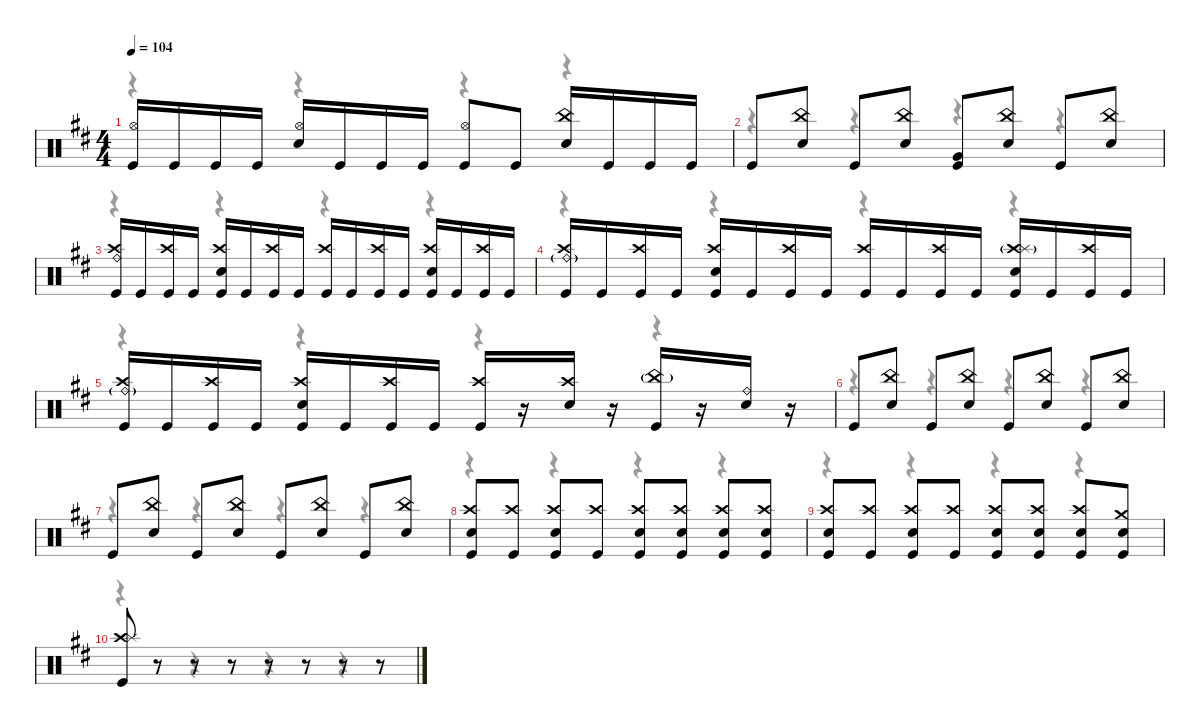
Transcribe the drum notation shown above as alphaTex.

\defaultSystemsLayout 4
\hideDynamics
\bracketExtendMode nobrackets
\singleTrackTrackNamePolicy hidden
\multiTrackTrackNamePolicy hidden
\firstSystemTrackNameMode fullname
\otherSystemsTrackNameOrientation horizontal
\track ("Drums" "drm.") {instrument percussion}
\staff {score}
\articulation defaults
\voice
\ts (4 4)
\tempo 104
\clef neutral
\ks bminor
("Hi-Hat (open)"{acc forcenatural} "Kick (hit)"{acc forcenatural}).16{dy mp beam Up} "Kick (hit)"{acc forcenatural}.16{dy f beam Up} "Kick (hit)"{acc forcenatural}.16{beam Up} "Kick (hit)"{acc forcenatural}.16{beam Up} ("Hi-Hat (open)"{acc forcenatural} "Snare (hit) 2"{acc forcenatural}).16{dy mp beam Up} "Kick (hit)"{acc forcenatural}.16{dy f beam Up} "Kick (hit)"{acc forcenatural}.16{beam Up} "Kick (hit)"{acc forcenatural}.16{beam Up} ("Hi-Hat (open)"{acc forcenatural} "Kick (hit)"{acc forcenatural}).8{dy mp beam Up} "Kick (hit)"{acc forcenatural}.8{dy f beam Up} ("China (hit)"{acc forcenatural} "Snare (hit) 2"{acc forcenatural}).16{dy mf beam Up} "Kick (hit)"{acc forcenatural}.16{dy f beam Up} "Kick (hit)"{acc forcenatural}.16{beam Up} "Kick (hit)"{acc forcenatural}.16{beam Up} |
"Kick (hit)"{acc forcenatural}.8{beam Up} ("China (hit)"{acc forcenatural} "Snare (hit) 2"{acc forcenatural}).8{beam Up} "Kick (hit)"{acc forcenatural}.8{beam Up} ("China (hit)"{acc forcenatural} "Snare (hit) 2"{acc forcenatural}).8{beam Up} ("Very Low Tom (hit)"{acc forcenatural} "Kick (hit)"{acc forcenatural}).8{beam Up} ("China (hit)"{acc forcenatural} "Snare (hit) 2"{acc forcenatural}).8{beam Up} "Kick (hit)"{acc forcenatural}.8{beam Up} ("China (hit)"{acc forcenatural} "Snare (hit) 2"{acc forcenatural}).8{beam Up} |
("Ride (bell)"{acc forcenatural} "Crash high (hit)"{acc forcenatural} "Kick (hit)"{acc forcenatural}).16{dy mp beam Up} "Kick (hit)"{acc forcenatural}.16{dy f beam Up} ("Crash high (hit)"{acc forcenatural} "Kick (hit)"{acc forcenatural}).16{dy pp beam Up} "Kick (hit)"{acc forcenatural}.16{dy f beam Up} ("Crash high (hit)"{acc forcenatural} "Snare (hit) 2"{acc forcenatural} "Kick (hit)"{acc forcenatural}).16{dy mp beam Up} "Kick (hit)"{acc forcenatural}.16{dy f beam Up} ("Crash high (hit)"{acc forcenatural} "Kick (hit)"{acc forcenatural}).16{dy pp beam Up} "Kick (hit)"{acc forcenatural}.16{dy f beam Up} ("Crash high (hit)"{acc forcenatural} "Kick (hit)"{acc forcenatural}).16{dy mp beam Up} "Kick (hit)"{acc forcenatural}.16{dy f beam Up} ("Crash high (hit)"{acc forcenatural} "Kick (hit)"{acc forcenatural}).16{dy pp beam Up} "Kick (hit)"{acc forcenatural}.16{dy f beam Up} ("Crash high (hit)"{acc forcenatural} "Snare (hit) 2"{acc forcenatural} "Kick (hit)"{acc forcenatural}).16{dy mp beam Up} "Kick (hit)"{acc forcenatural}.16{dy f beam Up} ("Crash high (hit)"{acc forcenatural} "Kick (hit)"{acc forcenatural}).16{dy pp beam Up} "Kick (hit)"{acc forcenatural}.16{dy f beam Up} |
("Ride (bell)"{g acc forcenatural} "Crash high (hit)"{acc forcenatural} "Kick (hit)"{acc forcenatural}).16{dy mp beam Up} "Kick (hit)"{acc forcenatural}.16{dy f beam Up} ("Crash high (hit)"{acc forcenatural} "Kick (hit)"{acc forcenatural}).16{dy pp beam Up} "Kick (hit)"{acc forcenatural}.16{dy f beam Up} ("Crash high (hit)"{acc forcenatural} "Snare (hit) 2"{acc forcenatural} "Kick (hit)"{acc forcenatural}).16{dy mp beam Up} "Kick (hit)"{acc forcenatural}.16{dy f beam Up} ("Crash high (hit)"{acc forcenatural} "Kick (hit)"{acc forcenatural}).16{dy pp beam Up} "Kick (hit)"{acc forcenatural}.16{dy f beam Up} ("Crash high (hit)"{acc forcenatural} "Kick (hit)"{acc forcenatural}).16{dy mp beam Up} "Kick (hit)"{acc forcenatural}.16{dy f beam Up} ("Crash high (hit)"{acc forcenatural} "Kick (hit)"{acc forcenatural}).16{dy pp beam Up} "Kick (hit)"{acc forcenatural}.16{dy f beam Up} ("Crash high (hit)"{acc forcenatural} "Splash (hit)"{g acc forcenatural} "Snare (hit) 2"{acc forcenatural} "Kick (hit)"{acc forcenatural}).16{dy mp beam Up} "Kick (hit)"{acc forcenatural}.16{dy f beam Up} ("Crash high (hit)"{acc forcenatural} "Kick (hit)"{acc forcenatural}).16{dy pp beam Up} "Kick (hit)"{acc forcenatural}.16{dy f beam Up} |
("Ride (bell)"{g acc forcenatural} "Crash high (hit)"{acc forcenatural} "Kick (hit)"{acc forcenatural}).16{dy mp beam Up} "Kick (hit)"{acc forcenatural}.16{dy f beam Up} ("Crash high (hit)"{acc forcenatural} "Kick (hit)"{acc forcenatural}).16{dy pp beam Up} "Kick (hit)"{acc forcenatural}.16{dy f beam Up} ("Crash high (hit)"{acc forcenatural} "Snare (hit) 2"{acc forcenatural} "Kick (hit)"{acc forcenatural}).16{dy mp beam Up} "Kick (hit)"{acc forcenatural}.16{dy f beam Up} ("Crash high (hit)"{acc forcenatural} "Kick (hit)"{acc forcenatural}).16{dy pp beam Up} "Kick (hit)"{acc forcenatural}.16{dy f beam Up} ("Crash high (hit)"{acc forcenatural} "Kick (hit)"{acc forcenatural}).16{dy mp beam Up} r.16{beam Up} ("Crash high (hit)"{acc forcenatural} "Snare (hit) 2"{acc forcenatural}).16{dy pp beam Up} r.16{beam Up} ("China (hit)"{g acc forcenatural} "Kick (hit)"{acc forcenatural}).16{dy f beam Up} r.16{beam Up} ("Ride (bell)"{acc forcenatural} "Snare (hit) 2"{acc forcenatural}).16{dy p beam Up} r.16{beam Up} |
"Kick (hit)"{acc forcenatural}.8{dy f beam Up} ("China (hit)"{acc forcenatural} "Snare (hit) 2"{acc forcenatural}).8{dy mf beam Up} "Kick (hit)"{acc forcenatural}.8{dy f beam Up} ("China (hit)"{acc forcenatural} "Snare (hit) 2"{acc forcenatural}).8{dy mf beam Up} "Kick (hit)"{acc forcenatural}.8{dy f beam Up} ("China (hit)"{acc forcenatural} "Snare (hit) 2"{acc forcenatural}).8{dy mf beam Up} "Kick (hit)"{acc forcenatural}.8{dy f beam Up} ("China (hit)"{acc forcenatural} "Snare (hit) 2"{acc forcenatural}).8{dy mf beam Up} |
"Kick (hit)"{acc forcenatural}.8{dy f beam Up} ("China (hit)"{acc forcenatural} "Snare (hit) 2"{acc forcenatural}).8{dy mf beam Up} "Kick (hit)"{acc forcenatural}.8{dy f beam Up} ("China (hit)"{acc forcenatural} "Snare (hit) 2"{acc forcenatural}).8{dy mf beam Up} "Kick (hit)"{acc forcenatural}.8{dy f beam Up} ("China (hit)"{acc forcenatural} "Snare (hit) 2"{acc forcenatural}).8{dy mf beam Up} "Kick (hit)"{acc forcenatural}.8{dy f beam Up} ("China (hit)"{acc forcenatural} "Snare (hit) 2"{acc forcenatural}).8{dy mf beam Up} |
("Crash high (hit)"{acc forcenatural} "Snare (hit) 2"{acc forcenatural} "Kick (hit)"{acc forcenatural}).8{beam Up} ("Crash high (hit)"{acc forcenatural} "Kick (hit)"{acc forcenatural}).8{dy mp beam Up} ("Crash high (hit)"{acc forcenatural} "Snare (hit) 2"{acc forcenatural} "Kick (hit)"{acc forcenatural}).8{beam Up} ("Crash high (hit)"{acc forcenatural} "Kick (hit)"{acc forcenatural}).8{dy p beam Up} ("Crash high (hit)"{acc forcenatural} "Snare (hit) 2"{acc forcenatural} "Kick (hit)"{acc forcenatural}).8{dy mp beam Up} ("Crash high (hit)"{acc forcenatural} "Snare (hit) 2"{acc forcenatural} "Kick (hit)"{acc forcenatural}).8{dy p beam Up} ("Crash high (hit)"{acc forcenatural} "Snare (hit) 2"{acc forcenatural} "Kick (hit)"{acc forcenatural}).8{dy mp beam Up} ("Crash high (hit)"{acc forcenatural} "Snare (hit) 2"{acc forcenatural} "Kick (hit)"{acc forcenatural}).8{dy p beam Up} |
("Crash high (hit)"{acc forcenatural} "Snare (hit) 2"{acc forcenatural} "Kick (hit)"{acc forcenatural}).8{dy mf beam Up} ("Crash high (hit)"{acc forcenatural} "Kick (hit)"{acc forcenatural}).8{dy mp beam Up} ("Crash high (hit)"{acc forcenatural} "Snare (hit) 2"{acc forcenatural} "Kick (hit)"{acc forcenatural}).8{beam Up} ("Crash high (hit)"{acc forcenatural} "Kick (hit)"{acc forcenatural}).8{dy p beam Up} ("Crash high (hit)"{acc forcenatural} "Snare (hit) 2"{acc forcenatural} "Kick (hit)"{acc forcenatural}).8{dy mp beam Up} ("Crash high (hit)"{acc forcenatural} "Snare (hit) 2"{acc forcenatural} "Kick (hit)"{acc forcenatural}).8{dy p beam Up} ("Crash high (hit)"{acc forcenatural} "Snare (hit) 2"{acc forcenatural} "Kick (hit)"{acc forcenatural}).8{dy mp beam Up} ("Crash medium (hit)"{acc forcenatural} "Snare (hit) 2"{acc forcenatural} "Kick (hit)"{acc forcenatural}).8{beam Up} |
("Crash high (hit)"{acc forcenatural} "Splash (hit)"{acc forcenatural} "Kick (hit)"{acc forcenatural}).8{dy mf beam Up} r.8{beam Up} r.8{beam Up} r.8{beam Up} r.8{beam Up} r.8{beam Up} r.8{beam Up} r.8{beam Up}
\voice
\clef neutral
\ottava regular
\simile none
\ks bminor
r.4{dy mf beam Down} r.4{beam Down} r.4{beam Down} r.4{beam Down} |
r.4{beam Down} r.4{beam Down} r.4{beam Down} r.4{beam Down} |
r.4{beam Down} r.4{beam Down} r.4{beam Down} r.4{beam Down} |
r.4{beam Down} r.4{beam Down} r.4{beam Down} r.4{beam Down} |
r.4{beam Down} r.4{beam Down} r.4{beam Down} r.4{beam Down} |
r.4{beam Down} r.4{beam Down} r.4{beam Down} r.4{beam Down} |
r.4{beam Down} r.4{beam Down} r.4{beam Down} r.4{beam Down} |
r.4{beam Down} r.4{beam Down} r.4{beam Down} r.4{beam Down} |
r.4{beam Down} r.4{beam Down} r.4{beam Down} r.4{beam Down} |
r.4{beam Down} r.4{beam Down} r.4{beam Down} r.4{beam Down}
